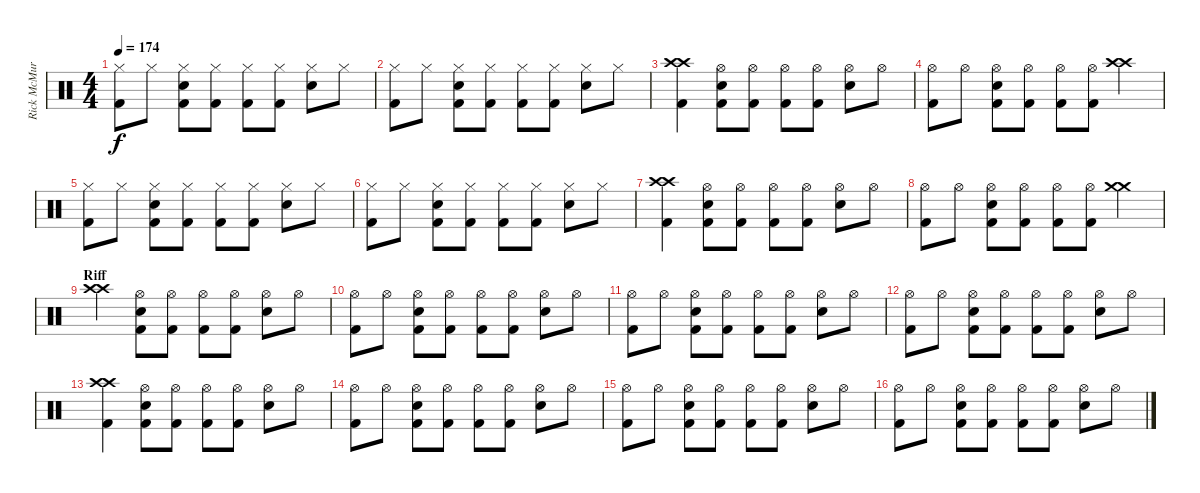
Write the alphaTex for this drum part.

\track ("Rick McMurray" "Rick McMur") {instrument percussion}
\staff {score}
\articulation defaults
\ts (4 4)
\tempo 174
\clef neutral
\ks c
("Hi-Hat (closed)" "Kick (hit) 2").8{dy f} "Hi-Hat (closed)".8 ("Hi-Hat (closed)" "Snare (hit) 2" "Kick (hit) 2").8 ("Hi-Hat (closed)" "Kick (hit) 2").8 ("Hi-Hat (closed)" "Kick (hit) 2").8 ("Hi-Hat (closed)" "Kick (hit) 2").8 ("Hi-Hat (closed)" "Snare (hit) 2").8 "Hi-Hat (closed)".8 |
("Hi-Hat (closed)" "Kick (hit) 2").8 "Hi-Hat (closed)".8 ("Hi-Hat (closed)" "Snare (hit) 2" "Kick (hit) 2").8 ("Hi-Hat (closed)" "Kick (hit) 2").8 ("Hi-Hat (closed)" "Kick (hit) 2").8 ("Hi-Hat (closed)" "Kick (hit) 2").8 ("Hi-Hat (closed)" "Snare (hit) 2").8 "Hi-Hat (closed)".8 |
("Crash high (hit)" "Crash high (hit)" "Kick (hit) 2").4 ("Hi-Hat (open)" "Snare (hit) 2" "Kick (hit) 2").8 ("Hi-Hat (open)" "Kick (hit) 2").8 ("Hi-Hat (open)" "Kick (hit) 2").8 ("Hi-Hat (open)" "Kick (hit) 2").8 ("Hi-Hat (open)" "Snare (hit) 2").8 "Hi-Hat (open)".8 |
("Hi-Hat (open)" "Kick (hit) 2").8 "Hi-Hat (open)".8 ("Hi-Hat (open)" "Snare (hit) 2" "Kick (hit) 2").8 ("Hi-Hat (open)" "Kick (hit) 2").8 ("Hi-Hat (open)" "Kick (hit) 2").8 ("Hi-Hat (open)" "Kick (hit) 2").8 ("Crash high (hit)" "Crash high (hit)").4 |
("Hi-Hat (closed)" "Kick (hit) 2").8 "Hi-Hat (closed)".8 ("Hi-Hat (closed)" "Snare (hit) 2" "Kick (hit) 2").8 ("Hi-Hat (closed)" "Kick (hit) 2").8 ("Hi-Hat (closed)" "Kick (hit) 2").8 ("Hi-Hat (closed)" "Kick (hit) 2").8 ("Hi-Hat (closed)" "Snare (hit) 2").8 "Hi-Hat (closed)".8 |
("Hi-Hat (closed)" "Kick (hit) 2").8 "Hi-Hat (closed)".8 ("Hi-Hat (closed)" "Snare (hit) 2" "Kick (hit) 2").8 ("Hi-Hat (closed)" "Kick (hit) 2").8 ("Hi-Hat (closed)" "Kick (hit) 2").8 ("Hi-Hat (closed)" "Kick (hit) 2").8 ("Hi-Hat (closed)" "Snare (hit) 2").8 "Hi-Hat (closed)".8 |
("Crash high (hit)" "Crash high (hit)" "Kick (hit) 2").4 ("Hi-Hat (open)" "Snare (hit) 2" "Kick (hit) 2").8 ("Hi-Hat (open)" "Kick (hit) 2").8 ("Hi-Hat (open)" "Kick (hit) 2").8 ("Hi-Hat (open)" "Kick (hit) 2").8 ("Hi-Hat (open)" "Snare (hit) 2").8 "Hi-Hat (open)".8 |
("Hi-Hat (open)" "Kick (hit) 2").8 "Hi-Hat (open)".8 ("Hi-Hat (open)" "Snare (hit) 2" "Kick (hit) 2").8 ("Hi-Hat (open)" "Kick (hit) 2").8 ("Hi-Hat (open)" "Kick (hit) 2").8 ("Hi-Hat (open)" "Kick (hit) 2").8 ("Crash medium (hit)" "Crash medium (hit)").4 |
\section ("" "Riff")
("Crash high (hit)" "Crash high (hit)").4 ("Hi-Hat (open)" "Snare (hit) 2" "Kick (hit) 2").8 ("Hi-Hat (open)" "Kick (hit) 2").8 ("Hi-Hat (open)" "Kick (hit) 2").8 ("Hi-Hat (open)" "Kick (hit) 2").8 ("Hi-Hat (open)" "Snare (hit) 2").8 "Hi-Hat (open)".8 |
("Hi-Hat (open)" "Kick (hit) 2").8 "Hi-Hat (open)".8 ("Hi-Hat (open)" "Snare (hit) 2" "Kick (hit) 2").8 ("Hi-Hat (open)" "Kick (hit) 2").8 ("Hi-Hat (open)" "Kick (hit) 2").8 ("Hi-Hat (open)" "Kick (hit) 2").8 ("Hi-Hat (open)" "Snare (hit) 2").8 "Hi-Hat (open)".8 |
("Hi-Hat (open)" "Kick (hit) 2").8 "Hi-Hat (open)".8 ("Hi-Hat (open)" "Snare (hit) 2" "Kick (hit) 2").8 ("Hi-Hat (open)" "Kick (hit) 2").8 ("Hi-Hat (open)" "Kick (hit) 2").8 ("Hi-Hat (open)" "Kick (hit) 2").8 ("Hi-Hat (open)" "Snare (hit) 2").8 "Hi-Hat (open)".8 |
("Hi-Hat (open)" "Kick (hit) 2").8 "Hi-Hat (open)".8 ("Hi-Hat (open)" "Snare (hit) 2" "Kick (hit) 2").8 ("Hi-Hat (open)" "Kick (hit) 2").8 ("Hi-Hat (open)" "Kick (hit) 2").8 ("Hi-Hat (open)" "Kick (hit) 2").8 ("Hi-Hat (open)" "Snare (hit) 2").8 "Hi-Hat (open)".8 |
("Crash high (hit)" "Crash high (hit)" "Kick (hit) 2").4 ("Hi-Hat (open)" "Snare (hit) 2" "Kick (hit) 2").8 ("Hi-Hat (open)" "Kick (hit) 2").8 ("Hi-Hat (open)" "Kick (hit) 2").8 ("Hi-Hat (open)" "Kick (hit) 2").8 ("Hi-Hat (open)" "Snare (hit) 2").8 "Hi-Hat (open)".8 |
("Hi-Hat (open)" "Kick (hit) 2").8 "Hi-Hat (open)".8 ("Hi-Hat (open)" "Snare (hit) 2" "Kick (hit) 2").8 ("Hi-Hat (open)" "Kick (hit) 2").8 ("Hi-Hat (open)" "Kick (hit) 2").8 ("Hi-Hat (open)" "Kick (hit) 2").8 ("Hi-Hat (open)" "Snare (hit) 2").8 "Hi-Hat (open)".8 |
("Hi-Hat (open)" "Kick (hit) 2").8 "Hi-Hat (open)".8 ("Hi-Hat (open)" "Snare (hit) 2" "Kick (hit) 2").8 ("Hi-Hat (open)" "Kick (hit) 2").8 ("Hi-Hat (open)" "Kick (hit) 2").8 ("Hi-Hat (open)" "Kick (hit) 2").8 ("Hi-Hat (open)" "Snare (hit) 2").8 "Hi-Hat (open)".8 |
("Hi-Hat (open)" "Kick (hit) 2").8 "Hi-Hat (open)".8 ("Hi-Hat (open)" "Snare (hit) 2" "Kick (hit) 2").8 ("Hi-Hat (open)" "Kick (hit) 2").8 ("Hi-Hat (open)" "Kick (hit) 2").8 ("Hi-Hat (open)" "Kick (hit) 2").8 ("Hi-Hat (open)" "Snare (hit) 2").8 "Hi-Hat (open)".8
